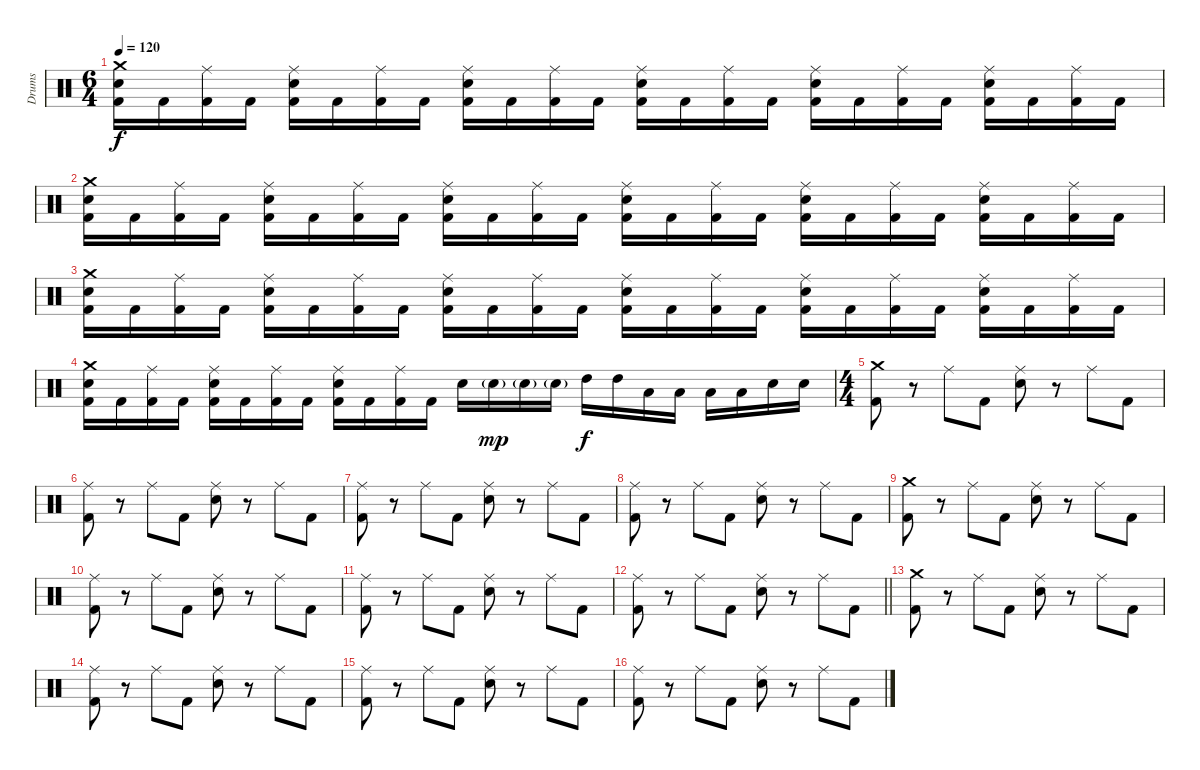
\track ("Drums" "Drums") {instrument percussion}
\staff {score}
\articulation defaults
\ts (6 4)
\tempo 120
\clef neutral
\ks c
("Crash medium (hit)" "Snare (hit) 2" "Kick (hit) 2").16{dy f} "Kick (hit) 2".16 ("Ride (middle)" "Kick (hit) 2").16 "Kick (hit) 2".16 ("Ride (middle)" "Snare (hit) 2" "Kick (hit) 2").16 "Kick (hit) 2".16 ("Ride (middle)" "Kick (hit) 2").16 "Kick (hit) 2".16 ("Ride (middle)" "Snare (hit) 2" "Kick (hit) 2").16 "Kick (hit) 2".16 ("Ride (middle)" "Kick (hit) 2").16 "Kick (hit) 2".16 ("Ride (middle)" "Snare (hit) 2" "Kick (hit) 2").16 "Kick (hit) 2".16 ("Ride (middle)" "Kick (hit) 2").16 "Kick (hit) 2".16 ("Ride (middle)" "Snare (hit) 2" "Kick (hit) 2").16 "Kick (hit) 2".16 ("Ride (middle)" "Kick (hit) 2").16 "Kick (hit) 2".16 ("Ride (middle)" "Snare (hit) 2" "Kick (hit) 2").16 "Kick (hit) 2".16 ("Ride (middle)" "Kick (hit) 2").16 "Kick (hit) 2".16 |
("Crash medium (hit)" "Snare (hit) 2" "Kick (hit) 2").16 "Kick (hit) 2".16 ("Ride (middle)" "Kick (hit) 2").16 "Kick (hit) 2".16 ("Ride (middle)" "Snare (hit) 2" "Kick (hit) 2").16 "Kick (hit) 2".16 ("Ride (middle)" "Kick (hit) 2").16 "Kick (hit) 2".16 ("Ride (middle)" "Snare (hit) 2" "Kick (hit) 2").16 "Kick (hit) 2".16 ("Ride (middle)" "Kick (hit) 2").16 "Kick (hit) 2".16 ("Ride (middle)" "Snare (hit) 2" "Kick (hit) 2").16 "Kick (hit) 2".16 ("Ride (middle)" "Kick (hit) 2").16 "Kick (hit) 2".16 ("Ride (middle)" "Snare (hit) 2" "Kick (hit) 2").16 "Kick (hit) 2".16 ("Ride (middle)" "Kick (hit) 2").16 "Kick (hit) 2".16 ("Ride (middle)" "Snare (hit) 2" "Kick (hit) 2").16 "Kick (hit) 2".16 ("Ride (middle)" "Kick (hit) 2").16 "Kick (hit) 2".16 |
("Crash medium (hit)" "Snare (hit) 2" "Kick (hit) 2").16 "Kick (hit) 2".16 ("Ride (middle)" "Kick (hit) 2").16 "Kick (hit) 2".16 ("Ride (middle)" "Snare (hit) 2" "Kick (hit) 2").16 "Kick (hit) 2".16 ("Ride (middle)" "Kick (hit) 2").16 "Kick (hit) 2".16 ("Ride (middle)" "Snare (hit) 2" "Kick (hit) 2").16 "Kick (hit) 2".16 ("Ride (middle)" "Kick (hit) 2").16 "Kick (hit) 2".16 ("Ride (middle)" "Snare (hit) 2" "Kick (hit) 2").16 "Kick (hit) 2".16 ("Ride (middle)" "Kick (hit) 2").16 "Kick (hit) 2".16 ("Ride (middle)" "Snare (hit) 2" "Kick (hit) 2").16 "Kick (hit) 2".16 ("Ride (middle)" "Kick (hit) 2").16 "Kick (hit) 2".16 ("Ride (middle)" "Snare (hit) 2" "Kick (hit) 2").16 "Kick (hit) 2".16 ("Ride (middle)" "Kick (hit) 2").16 "Kick (hit) 2".16 |
("Crash medium (hit)" "Snare (hit) 2" "Kick (hit) 2").16 "Kick (hit) 2".16 ("Ride (middle)" "Kick (hit) 2").16 "Kick (hit) 2".16 ("Ride (middle)" "Snare (hit) 2" "Kick (hit) 2").16 "Kick (hit) 2".16 ("Ride (middle)" "Kick (hit) 2").16 "Kick (hit) 2".16 ("Ride (middle)" "Snare (hit) 2" "Kick (hit) 2").16 "Kick (hit) 2".16 ("Ride (middle)" "Kick (hit) 2").16 "Kick (hit) 2".16 "Snare (hit) 2".16 "Snare (hit) 2"{g}.16{dy mp} "Snare (hit) 2"{g}.16 "Snare (hit) 2"{g}.16 "High Tom (hit)".16{dy f} "High Tom (hit)".16 "Low Tom (hit)".16 "Low Tom (hit)".16 "Low Tom (hit)".16 "Low Tom (hit)".16 "Snare (hit) 2".16 "Snare (hit) 2".16 |
\ts (4 4)
("Crash medium (hit)" "Kick (hit) 2").8 r.8 "Ride (middle)".8 "Kick (hit) 2".8 ("Ride (middle)" "Snare (hit) 2").8 r.8 "Ride (middle)".8 "Kick (hit) 2".8 |
("Ride (middle)" "Kick (hit) 2").8 r.8 "Ride (middle)".8 "Kick (hit) 2".8 ("Ride (middle)" "Snare (hit) 2").8 r.8 "Ride (middle)".8 "Kick (hit) 2".8 |
("Ride (middle)" "Kick (hit) 2").8 r.8 "Ride (middle)".8 "Kick (hit) 2".8 ("Ride (middle)" "Snare (hit) 2").8 r.8 "Ride (middle)".8 "Kick (hit) 2".8 |
("Ride (middle)" "Kick (hit) 2").8 r.8 "Ride (middle)".8 "Kick (hit) 2".8 ("Ride (middle)" "Snare (hit) 2").8 r.8 "Ride (middle)".8 "Kick (hit) 2".8 |
("Crash medium (hit)" "Kick (hit) 2").8 r.8 "Ride (middle)".8 "Kick (hit) 2".8 ("Ride (middle)" "Snare (hit) 2").8 r.8 "Ride (middle)".8 "Kick (hit) 2".8 |
("Ride (middle)" "Kick (hit) 2").8 r.8 "Ride (middle)".8 "Kick (hit) 2".8 ("Ride (middle)" "Snare (hit) 2").8 r.8 "Ride (middle)".8 "Kick (hit) 2".8 |
("Ride (middle)" "Kick (hit) 2").8 r.8 "Ride (middle)".8 "Kick (hit) 2".8 ("Ride (middle)" "Snare (hit) 2").8 r.8 "Ride (middle)".8 "Kick (hit) 2".8 |
\barLineRight lightlight
("Ride (middle)" "Kick (hit) 2").8 r.8 "Ride (middle)".8 "Kick (hit) 2".8 ("Ride (middle)" "Snare (hit) 2").8 r.8 "Ride (middle)".8 "Kick (hit) 2".8 |
("Crash medium (hit)" "Kick (hit) 2").8 r.8 "Ride (middle)".8 "Kick (hit) 2".8 ("Ride (middle)" "Snare (hit) 2").8 r.8 "Ride (middle)".8 "Kick (hit) 2".8 |
("Ride (middle)" "Kick (hit) 2").8 r.8 "Ride (middle)".8 "Kick (hit) 2".8 ("Ride (middle)" "Snare (hit) 2").8 r.8 "Ride (middle)".8 "Kick (hit) 2".8 |
("Ride (middle)" "Kick (hit) 2").8 r.8 "Ride (middle)".8 "Kick (hit) 2".8 ("Ride (middle)" "Snare (hit) 2").8 r.8 "Ride (middle)".8 "Kick (hit) 2".8 |
("Ride (middle)" "Kick (hit) 2").8 r.8 "Ride (middle)".8 "Kick (hit) 2".8 ("Ride (middle)" "Snare (hit) 2").8 r.8 "Ride (middle)".8 "Kick (hit) 2".8
